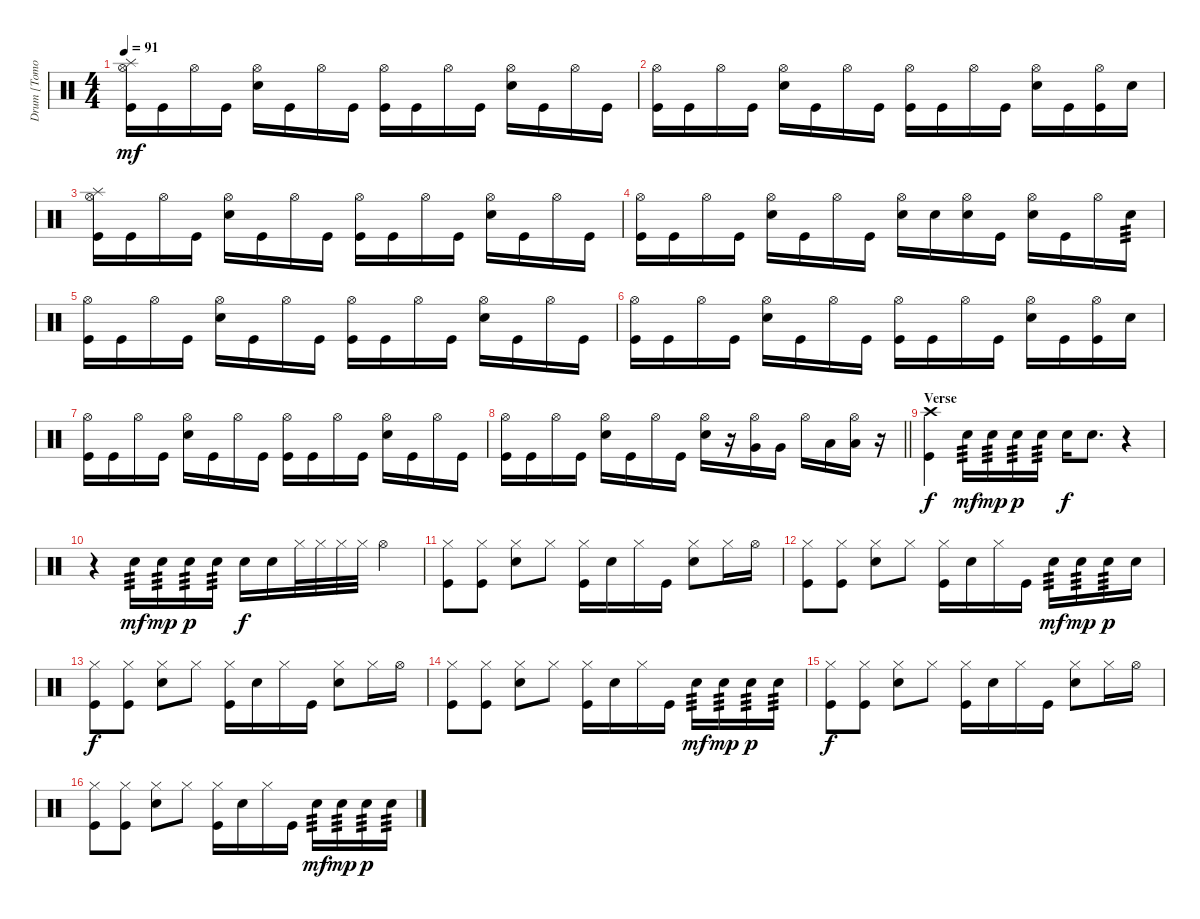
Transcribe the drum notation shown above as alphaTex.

\track ("Drum [Tomoya]" "Drum [Tomo") {instrument percussion}
\staff {score}
\articulation defaults
\ts (4 4)
\tempo 91
\clef neutral
\ks c
("Kick (hit)" "Splash (hit)" "Hi-Hat (open)").16{dy mf} "Kick (hit)".16 "Hi-Hat (open)".16 "Kick (hit)".16 ("Snare (hit) 2" "Hi-Hat (open)").16 "Kick (hit)".16 "Hi-Hat (open)".16 "Kick (hit)".16 ("Kick (hit)" "Hi-Hat (open)").16 "Kick (hit)".16 "Hi-Hat (open)".16 "Kick (hit)".16 ("Snare (hit) 2" "Hi-Hat (open)").16 "Kick (hit)".16 "Hi-Hat (open)".16 "Kick (hit)".16 |
("Kick (hit)" "Hi-Hat (open)").16 "Kick (hit)".16 "Hi-Hat (open)".16 "Kick (hit)".16 ("Snare (hit) 2" "Hi-Hat (open)").16 "Kick (hit)".16 "Hi-Hat (open)".16 "Kick (hit)".16 ("Kick (hit)" "Hi-Hat (open)").16 "Kick (hit)".16 "Hi-Hat (open)".16 "Kick (hit)".16 ("Snare (hit) 2" "Hi-Hat (open)").16 "Kick (hit)".16 ("Hi-Hat (open)" "Kick (hit)").16 "Snare (hit) 2".16 |
("Kick (hit)" "Splash (hit)" "Hi-Hat (open)").16 "Kick (hit)".16 "Hi-Hat (open)".16 "Kick (hit)".16 ("Snare (hit) 2" "Hi-Hat (open)").16 "Kick (hit)".16 "Hi-Hat (open)".16 "Kick (hit)".16 ("Kick (hit)" "Hi-Hat (open)").16 "Kick (hit)".16 "Hi-Hat (open)".16 "Kick (hit)".16 ("Snare (hit) 2" "Hi-Hat (open)").16 "Kick (hit)".16 "Hi-Hat (open)".16 "Kick (hit)".16 |
("Kick (hit)" "Hi-Hat (open)").16 "Kick (hit)".16 "Hi-Hat (open)".16 "Kick (hit)".16 ("Snare (hit) 2" "Hi-Hat (open)").16 "Kick (hit)".16 "Hi-Hat (open)".16 "Kick (hit)".16 ("Hi-Hat (open)" "Snare (hit) 2").16 "Snare (hit) 2".16 ("Hi-Hat (open)" "Snare (hit) 2").16 "Kick (hit)".16 ("Snare (hit) 2" "Hi-Hat (open)").16 "Kick (hit)".16 "Hi-Hat (open)".16 "Snare (hit) 2".16{tp 3} |
("Kick (hit)" "Hi-Hat (open)").16 "Kick (hit)".16 "Hi-Hat (open)".16 "Kick (hit)".16 ("Snare (hit) 2" "Hi-Hat (open)").16 "Kick (hit)".16 "Hi-Hat (open)".16 "Kick (hit)".16 ("Kick (hit)" "Hi-Hat (open)").16 "Kick (hit)".16 "Hi-Hat (open)".16 "Kick (hit)".16 ("Snare (hit) 2" "Hi-Hat (open)").16 "Kick (hit)".16 "Hi-Hat (open)".16 "Kick (hit)".16 |
("Kick (hit)" "Hi-Hat (open)").16 "Kick (hit)".16 "Hi-Hat (open)".16 "Kick (hit)".16 ("Snare (hit) 2" "Hi-Hat (open)").16 "Kick (hit)".16 "Hi-Hat (open)".16 "Kick (hit)".16 ("Kick (hit)" "Hi-Hat (open)").16 "Kick (hit)".16 "Hi-Hat (open)".16 "Kick (hit)".16 ("Snare (hit) 2" "Hi-Hat (open)").16 "Kick (hit)".16 ("Hi-Hat (open)" "Kick (hit)").16 "Snare (hit) 2".16 |
("Kick (hit)" "Hi-Hat (open)").16 "Kick (hit)".16 "Hi-Hat (open)".16 "Kick (hit)".16 ("Snare (hit) 2" "Hi-Hat (open)").16 "Kick (hit)".16 "Hi-Hat (open)".16 "Kick (hit)".16 ("Kick (hit)" "Hi-Hat (open)").16 "Kick (hit)".16 "Hi-Hat (open)".16 "Kick (hit)".16 ("Snare (hit) 2" "Hi-Hat (open)").16 "Kick (hit)".16 "Hi-Hat (open)".16 "Kick (hit)".16 |
\barLineRight lightlight
("Kick (hit)" "Hi-Hat (open)").16 "Kick (hit)".16 "Hi-Hat (open)".16 "Kick (hit)".16 ("Snare (hit) 2" "Hi-Hat (open)").16 "Kick (hit)".16 "Hi-Hat (open)".16 "Kick (hit)".16 ("Hi-Hat (open)" "Snare (hit) 2").16 r.16 ("Hi-Hat (open)" "Very Low Tom (hit)").16 "Very Low Tom (hit)".16 "Hi-Hat (open)".16 "Low Floor Tom (hit)".16 ("Hi-Hat (open)" "Low Floor Tom (hit)").16 r.16 |
\section ("" "Verse")
("Crash high (hit)" "Kick (hit)").4{dy f} "Snare (hit) 2".16{tp 3 dy mf} "Snare (hit) 2".16{tp 3 dy mp} "Snare (hit) 2".16{tp 3 dy p} "Snare (hit) 2".16{tp 3} "Snare (hit) 2".16{dy f} "Snare (hit) 2".8{d} r.4 |
r.4 "Snare (hit) 2".16{tp 3 dy mf} "Snare (hit) 2".16{tp 3 dy mp} "Snare (hit) 2".16{tp 3 dy p} "Snare (hit) 2".16{tp 3} "Snare (hit) 2".16{dy f} "Snare (hit) 2".16 "Hi-Hat (closed)".32 "Hi-Hat (closed)".32 "Hi-Hat (closed)".32 "Hi-Hat (closed)".32 "Hi-Hat (open)".4 |
("Hi-Hat (closed)" "Kick (hit)").8 ("Hi-Hat (closed)" "Kick (hit)").8 ("Hi-Hat (closed)" "Snare (hit) 2").8 "Hi-Hat (closed)".8 ("Hi-Hat (closed)" "Kick (hit)").16 "Snare (hit) 2".16 "Hi-Hat (closed)".16 "Kick (hit)".16 ("Hi-Hat (closed)" "Snare (hit) 2").8 "Hi-Hat (closed)".16 "Hi-Hat (open)".16 |
("Hi-Hat (closed)" "Kick (hit)").8 ("Hi-Hat (closed)" "Kick (hit)").8 ("Hi-Hat (closed)" "Snare (hit) 2").8 "Hi-Hat (closed)".8 ("Hi-Hat (closed)" "Kick (hit)").16 "Snare (hit) 2".16 "Hi-Hat (closed)".16 "Kick (hit)".16 "Snare (hit) 2".16{tp 3 dy mf} "Snare (hit) 2".16{tp 3 dy mp} "Snare (hit) 2".16{tp 3 dy p} "Snare (hit) 2".16 |
("Hi-Hat (closed)" "Kick (hit)").8{dy f} ("Hi-Hat (closed)" "Kick (hit)").8 ("Hi-Hat (closed)" "Snare (hit) 2").8 "Hi-Hat (closed)".8 ("Hi-Hat (closed)" "Kick (hit)").16 "Snare (hit) 2".16 "Hi-Hat (closed)".16 "Kick (hit)".16 ("Hi-Hat (closed)" "Snare (hit) 2").8 "Hi-Hat (closed)".16 "Hi-Hat (open)".16 |
("Hi-Hat (closed)" "Kick (hit)").8 ("Hi-Hat (closed)" "Kick (hit)").8 ("Hi-Hat (closed)" "Snare (hit) 2").8 "Hi-Hat (closed)".8 ("Hi-Hat (closed)" "Kick (hit)").16 "Snare (hit) 2".16 "Hi-Hat (closed)".16 "Kick (hit)".16 "Snare (hit) 2".16{tp 3 dy mf} "Snare (hit) 2".16{tp 3 dy mp} "Snare (hit) 2".16{tp 3 dy p} "Snare (hit) 2".16{tp 3} |
("Hi-Hat (closed)" "Kick (hit)").8{dy f} ("Hi-Hat (closed)" "Kick (hit)").8 ("Hi-Hat (closed)" "Snare (hit) 2").8 "Hi-Hat (closed)".8 ("Hi-Hat (closed)" "Kick (hit)").16 "Snare (hit) 2".16 "Hi-Hat (closed)".16 "Kick (hit)".16 ("Hi-Hat (closed)" "Snare (hit) 2").8 "Hi-Hat (closed)".16 "Hi-Hat (open)".16 |
("Hi-Hat (closed)" "Kick (hit)").8 ("Hi-Hat (closed)" "Kick (hit)").8 ("Hi-Hat (closed)" "Snare (hit) 2").8 "Hi-Hat (closed)".8 ("Hi-Hat (closed)" "Kick (hit)").16 "Snare (hit) 2".16 "Hi-Hat (closed)".16 "Kick (hit)".16 "Snare (hit) 2".16{tp 3 dy mf} "Snare (hit) 2".16{tp 3 dy mp} "Snare (hit) 2".16{tp 3 dy p} "Snare (hit) 2".16{tp 3}
